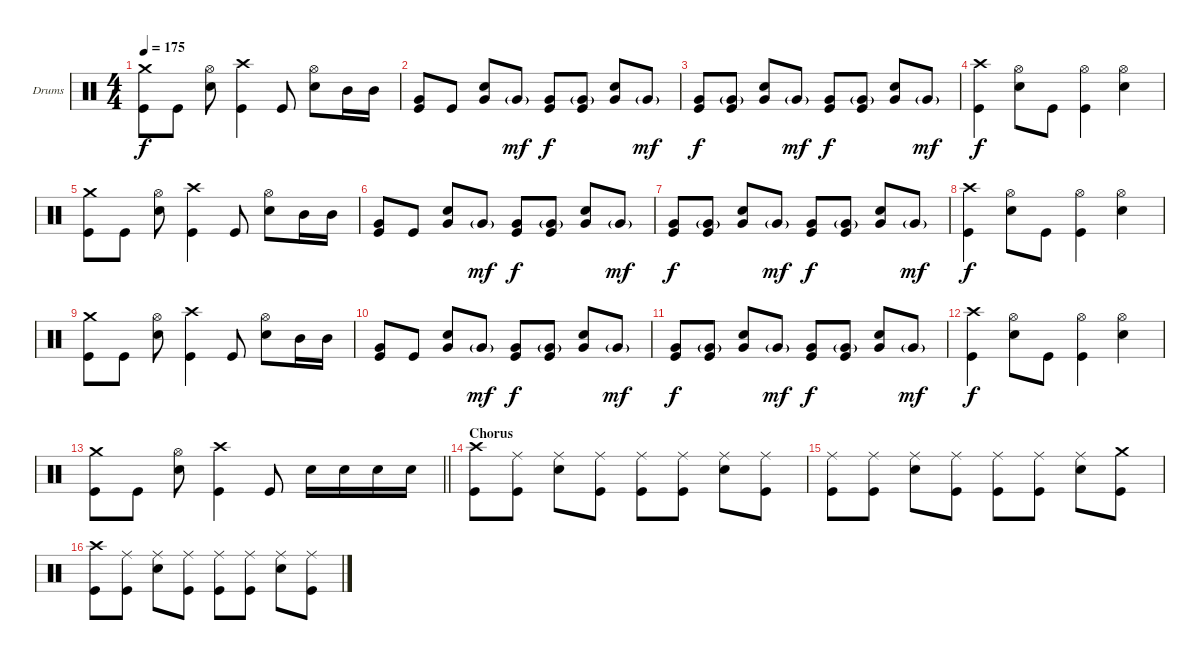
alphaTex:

\bracketExtendMode groupsimilarinstruments
\firstSystemTrackNameOrientation horizontal
\otherSystemsTrackNameOrientation horizontal
\track ("Drumkit" "Drums") {instrument percussion}
\staff {score}
\articulation defaults
\ts (4 4)
\tempo 175
\clef neutral
\ks c
("Crash medium (hit)" "Kick (hit)").8{dy f} "Kick (hit)".8 ("Hi-Hat (open)" "Snare (hit) 2").8 ("Crash high (hit)" "Kick (hit)").4 "Kick (hit)".8 ("Hi-Hat (open)" "Snare (hit) 2").8 "Mid Tom (hit)".16 "Mid Tom (hit)".16 |
("Very Low Tom (hit)" "Kick (hit)").8 "Kick (hit)".8 ("Very Low Tom (hit)" "Snare (hit) 2").8 "Very Low Tom (hit)"{g}.8{dy mf} ("Very Low Tom (hit)" "Kick (hit)").8{dy f} ("Very Low Tom (hit)"{g} "Kick (hit)").8 ("Very Low Tom (hit)" "Snare (hit) 2").8 "Very Low Tom (hit)"{g}.8{dy mf} |
("Very Low Tom (hit)" "Kick (hit)").8{dy f} ("Very Low Tom (hit)"{g} "Kick (hit)").8 ("Very Low Tom (hit)" "Snare (hit) 2").8 "Very Low Tom (hit)"{g}.8{dy mf} ("Very Low Tom (hit)" "Kick (hit)").8{dy f} ("Very Low Tom (hit)"{g} "Kick (hit)").8 ("Very Low Tom (hit)" "Snare (hit) 2").8 "Very Low Tom (hit)"{g}.8{dy mf} |
("Crash high (hit)" "Kick (hit)").4{dy f} ("Hi-Hat (open)" "Snare (hit) 2").8 "Kick (hit)".8 ("Hi-Hat (open)" "Kick (hit)").4 ("Hi-Hat (open)" "Snare (hit) 2").4 |
("Crash medium (hit)" "Kick (hit)").8 "Kick (hit)".8 ("Hi-Hat (open)" "Snare (hit) 2").8 ("Crash high (hit)" "Kick (hit)").4 "Kick (hit)".8 ("Hi-Hat (open)" "Snare (hit) 2").8 "Mid Tom (hit)".16 "Mid Tom (hit)".16 |
("Very Low Tom (hit)" "Kick (hit)").8 "Kick (hit)".8 ("Very Low Tom (hit)" "Snare (hit) 2").8 "Very Low Tom (hit)"{g}.8{dy mf} ("Very Low Tom (hit)" "Kick (hit)").8{dy f} ("Very Low Tom (hit)"{g} "Kick (hit)").8 ("Very Low Tom (hit)" "Snare (hit) 2").8 "Very Low Tom (hit)"{g}.8{dy mf} |
("Very Low Tom (hit)" "Kick (hit)").8{dy f} ("Very Low Tom (hit)"{g} "Kick (hit)").8 ("Very Low Tom (hit)" "Snare (hit) 2").8 "Very Low Tom (hit)"{g}.8{dy mf} ("Very Low Tom (hit)" "Kick (hit)").8{dy f} ("Very Low Tom (hit)"{g} "Kick (hit)").8 ("Very Low Tom (hit)" "Snare (hit) 2").8 "Very Low Tom (hit)"{g}.8{dy mf} |
("Crash high (hit)" "Kick (hit)").4{dy f} ("Hi-Hat (open)" "Snare (hit) 2").8 "Kick (hit)".8 ("Hi-Hat (open)" "Kick (hit)").4 ("Hi-Hat (open)" "Snare (hit) 2").4 |
("Crash medium (hit)" "Kick (hit)").8 "Kick (hit)".8 ("Hi-Hat (open)" "Snare (hit) 2").8 ("Crash high (hit)" "Kick (hit)").4 "Kick (hit)".8 ("Hi-Hat (open)" "Snare (hit) 2").8 "Mid Tom (hit)".16 "Mid Tom (hit)".16 |
("Very Low Tom (hit)" "Kick (hit)").8 "Kick (hit)".8 ("Very Low Tom (hit)" "Snare (hit) 2").8 "Very Low Tom (hit)"{g}.8{dy mf} ("Very Low Tom (hit)" "Kick (hit)").8{dy f} ("Very Low Tom (hit)"{g} "Kick (hit)").8 ("Very Low Tom (hit)" "Snare (hit) 2").8 "Very Low Tom (hit)"{g}.8{dy mf} |
("Very Low Tom (hit)" "Kick (hit)").8{dy f} ("Very Low Tom (hit)"{g} "Kick (hit)").8 ("Very Low Tom (hit)" "Snare (hit) 2").8 "Very Low Tom (hit)"{g}.8{dy mf} ("Very Low Tom (hit)" "Kick (hit)").8{dy f} ("Very Low Tom (hit)"{g} "Kick (hit)").8 ("Very Low Tom (hit)" "Snare (hit) 2").8 "Very Low Tom (hit)"{g}.8{dy mf} |
("Crash high (hit)" "Kick (hit)").4{dy f} ("Hi-Hat (open)" "Snare (hit) 2").8 "Kick (hit)".8 ("Hi-Hat (open)" "Kick (hit)").4 ("Hi-Hat (open)" "Snare (hit) 2").4 |
\barLineRight lightlight
("Crash medium (hit)" "Kick (hit)").8 "Kick (hit)".8 ("Hi-Hat (open)" "Snare (hit) 2").8 ("Crash high (hit)" "Kick (hit)").4 "Kick (hit)".8 "Snare (hit) 2".16 "Snare (hit) 2".16 "Snare (hit) 2".16 "Snare (hit) 2".16 |
\section ("" "Chorus")
("Crash high (hit)" "Kick (hit)").8 ("Ride (middle)" "Kick (hit)").8 ("Ride (middle)" "Snare (hit) 2").8 ("Ride (middle)" "Kick (hit)").8 ("Ride (middle)" "Kick (hit)").8 ("Ride (middle)" "Kick (hit)").8 ("Ride (middle)" "Snare (hit) 2").8 ("Ride (middle)" "Kick (hit)").8 |
("Ride (middle)" "Kick (hit)").8 ("Ride (middle)" "Kick (hit)").8 ("Ride (middle)" "Snare (hit) 2").8 ("Ride (middle)" "Kick (hit)").8 ("Ride (middle)" "Kick (hit)").8 ("Ride (middle)" "Kick (hit)").8 ("Ride (middle)" "Snare (hit) 2").8 ("Crash medium (hit)" "Kick (hit)").8 |
("Crash high (hit)" "Kick (hit)").8 ("Ride (middle)" "Kick (hit)").8 ("Ride (middle)" "Snare (hit) 2").8 ("Ride (middle)" "Kick (hit)").8 ("Ride (middle)" "Kick (hit)").8 ("Ride (middle)" "Kick (hit)").8 ("Ride (middle)" "Snare (hit) 2").8 ("Ride (middle)" "Kick (hit)").8
